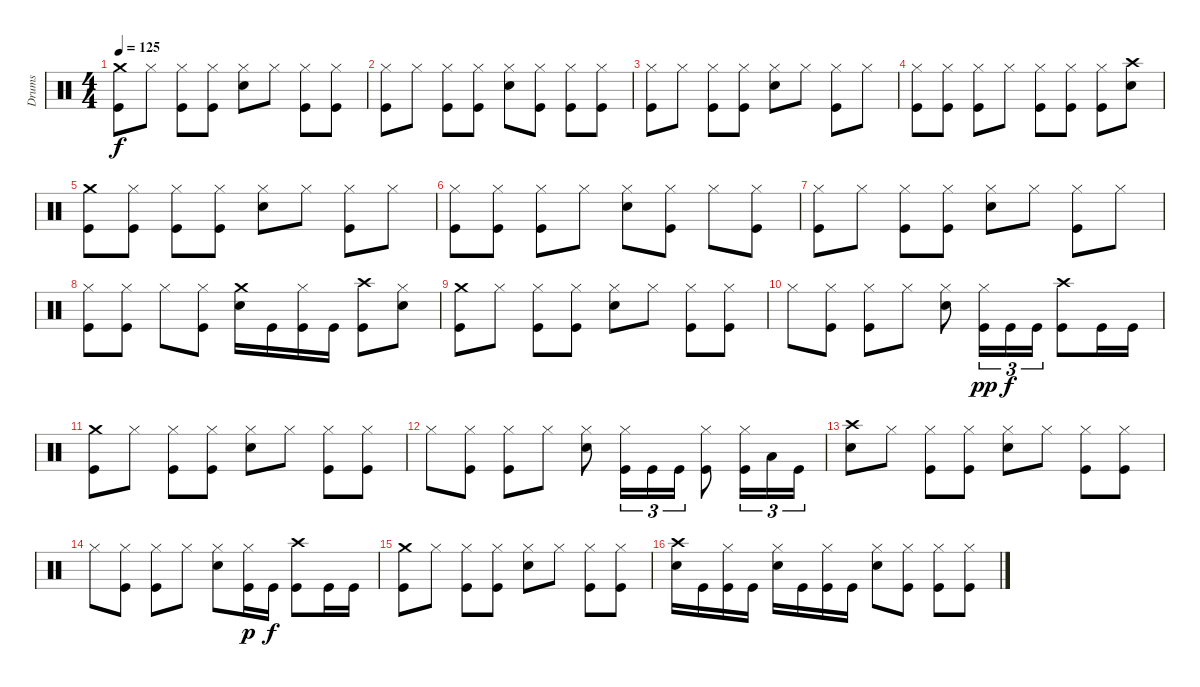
\track ("Drums" "Drums") {instrument percussion}
\staff {score}
\articulation defaults
\ts (4 4)
\tempo 125
\clef neutral
\ks c
("Kick (hit)" "Crash medium (hit)").8{dy f} "Hi-Hat (closed)".8 ("Kick (hit)" "Hi-Hat (closed)").8 ("Kick (hit)" "Hi-Hat (closed)").8 ("Electric Snare (hit)" "Hi-Hat (closed)").8 "Hi-Hat (closed)".8 ("Kick (hit)" "Hi-Hat (closed)").8 ("Kick (hit)" "Hi-Hat (closed)").8 |
("Kick (hit)" "Hi-Hat (closed)").8 "Hi-Hat (closed)".8 ("Kick (hit)" "Hi-Hat (closed)").8 ("Kick (hit)" "Hi-Hat (closed)").8 ("Electric Snare (hit)" "Hi-Hat (closed)").8 ("Kick (hit)" "Hi-Hat (closed)").8 ("Kick (hit)" "Hi-Hat (closed)").8 ("Kick (hit)" "Hi-Hat (closed)").8 |
("Kick (hit)" "Hi-Hat (closed)").8 "Hi-Hat (closed)".8 ("Kick (hit)" "Hi-Hat (closed)").8 ("Kick (hit)" "Hi-Hat (closed)").8 ("Electric Snare (hit)" "Hi-Hat (closed)").8 "Hi-Hat (closed)".8 ("Kick (hit)" "Hi-Hat (closed)").8 "Hi-Hat (closed)".8 |
("Kick (hit)" "Hi-Hat (closed)").8 ("Kick (hit)" "Hi-Hat (closed)").8 ("Kick (hit)" "Hi-Hat (closed)").8 "Hi-Hat (closed)".8 ("Kick (hit)" "Hi-Hat (closed)").8 ("Kick (hit)" "Hi-Hat (closed)").8 ("Kick (hit)" "Hi-Hat (closed)").8 ("Electric Snare (hit)" "Crash high (hit)").8 |
("Kick (hit)" "Crash medium (hit)").8 ("Kick (hit)" "Hi-Hat (closed)").8 ("Kick (hit)" "Hi-Hat (closed)").8 ("Kick (hit)" "Hi-Hat (closed)").8 ("Electric Snare (hit)" "Hi-Hat (closed)").8 "Hi-Hat (closed)".8 ("Kick (hit)" "Hi-Hat (closed)").8 "Hi-Hat (closed)".8 |
("Kick (hit)" "Hi-Hat (closed)").8 ("Kick (hit)" "Hi-Hat (closed)").8 ("Kick (hit)" "Hi-Hat (closed)").8 "Hi-Hat (closed)".8 ("Electric Snare (hit)" "Hi-Hat (closed)").8 ("Kick (hit)" "Hi-Hat (closed)").8 "Hi-Hat (closed)".8 ("Kick (hit)" "Hi-Hat (closed)").8 |
("Kick (hit)" "Hi-Hat (closed)").8 "Hi-Hat (closed)".8 ("Kick (hit)" "Hi-Hat (closed)").8 ("Kick (hit)" "Hi-Hat (closed)").8 ("Electric Snare (hit)" "Hi-Hat (closed)").8 "Hi-Hat (closed)".8 ("Kick (hit)" "Hi-Hat (closed)").8 "Hi-Hat (closed)".8 |
("Kick (hit)" "Hi-Hat (closed)").8 ("Kick (hit)" "Hi-Hat (closed)").8 "Hi-Hat (closed)".8 ("Kick (hit)" "Hi-Hat (closed)").8 ("Electric Snare (hit)" "Crash medium (hit)").16 "Kick (hit)".16 ("Kick (hit)" "Hi-Hat (closed)").16 "Kick (hit)".16 ("Kick (hit)" "Crash high (hit)").8 ("Electric Snare (hit)" "Hi-Hat (closed)").8 |
("Kick (hit)" "Crash medium (hit)").8 "Hi-Hat (closed)".8 ("Kick (hit)" "Hi-Hat (closed)").8 ("Kick (hit)" "Hi-Hat (closed)").8 ("Electric Snare (hit)" "Hi-Hat (closed)").8 "Hi-Hat (closed)".8 ("Kick (hit)" "Hi-Hat (closed)").8 ("Kick (hit)" "Hi-Hat (closed)").8 |
"Hi-Hat (closed)".8 ("Kick (hit)" "Hi-Hat (closed)").8 ("Kick (hit)" "Hi-Hat (closed)").8 "Hi-Hat (closed)".8 ("Electric Snare (hit)" "Hi-Hat (closed)").8 ("Kick (hit)" "Hi-Hat (closed)").16{tu (3 2) dy pp} "Kick (hit)".16{tu (3 2) dy f} "Kick (hit)".16{tu (3 2)} ("Kick (hit)" "Crash high (hit)").8 "Kick (hit)".16 "Kick (hit)".16 |
("Kick (hit)" "Crash medium (hit)").8 "Hi-Hat (closed)".8 ("Kick (hit)" "Hi-Hat (closed)").8 ("Kick (hit)" "Hi-Hat (closed)").8 ("Electric Snare (hit)" "Hi-Hat (closed)").8 "Hi-Hat (closed)".8 ("Kick (hit)" "Hi-Hat (closed)").8 ("Kick (hit)" "Hi-Hat (closed)").8 |
"Hi-Hat (closed)".8 ("Kick (hit)" "Hi-Hat (closed)").8 ("Kick (hit)" "Hi-Hat (closed)").8 "Hi-Hat (closed)".8 ("Electric Snare (hit)" "Hi-Hat (closed)").8 ("Kick (hit)" "Hi-Hat (closed)").16{tu (3 2)} "Kick (hit)".16{tu (3 2)} "Kick (hit)".16{tu (3 2)} ("Kick (hit)" "Hi-Hat (closed)").8 ("Kick (hit)" "Hi-Hat (closed)").16{tu (3 2)} "Low Floor Tom (hit)".16{tu (3 2)} "Kick (hit)".16{tu (3 2)} |
("Electric Snare (hit)" "Crash high (hit)").8 "Hi-Hat (closed)".8 ("Kick (hit)" "Hi-Hat (closed)").8 ("Kick (hit)" "Hi-Hat (closed)").8 ("Electric Snare (hit)" "Hi-Hat (closed)").8 "Hi-Hat (closed)".8 ("Kick (hit)" "Hi-Hat (closed)").8 ("Kick (hit)" "Hi-Hat (closed)").8 |
"Hi-Hat (closed)".8 ("Kick (hit)" "Hi-Hat (closed)").8 ("Kick (hit)" "Hi-Hat (closed)").8 "Hi-Hat (closed)".8 ("Electric Snare (hit)" "Hi-Hat (closed)").8 ("Kick (hit)" "Hi-Hat (closed)").16{dy p} "Kick (hit)".16{dy f} ("Kick (hit)" "Crash high (hit)").8 "Kick (hit)".16 "Kick (hit)".16 |
("Kick (hit)" "Crash medium (hit)").8 "Hi-Hat (closed)".8 ("Kick (hit)" "Hi-Hat (closed)").8 ("Kick (hit)" "Hi-Hat (closed)").8 ("Electric Snare (hit)" "Hi-Hat (closed)").8 "Hi-Hat (closed)".8 ("Kick (hit)" "Hi-Hat (closed)").8 ("Kick (hit)" "Hi-Hat (closed)").8 |
("Electric Snare (hit)" "Crash high (hit)").16 "Kick (hit)".16 ("Kick (hit)" "Hi-Hat (closed)").16 "Kick (hit)".16 ("Electric Snare (hit)" "Hi-Hat (closed)").16 "Kick (hit)".16 ("Kick (hit)" "Hi-Hat (closed)").16 "Kick (hit)".16 ("Electric Snare (hit)" "Hi-Hat (closed)").8 ("Kick (hit)" "Hi-Hat (closed)").8 ("Kick (hit)" "Hi-Hat (closed)").8 ("Kick (hit)" "Hi-Hat (closed)").8
